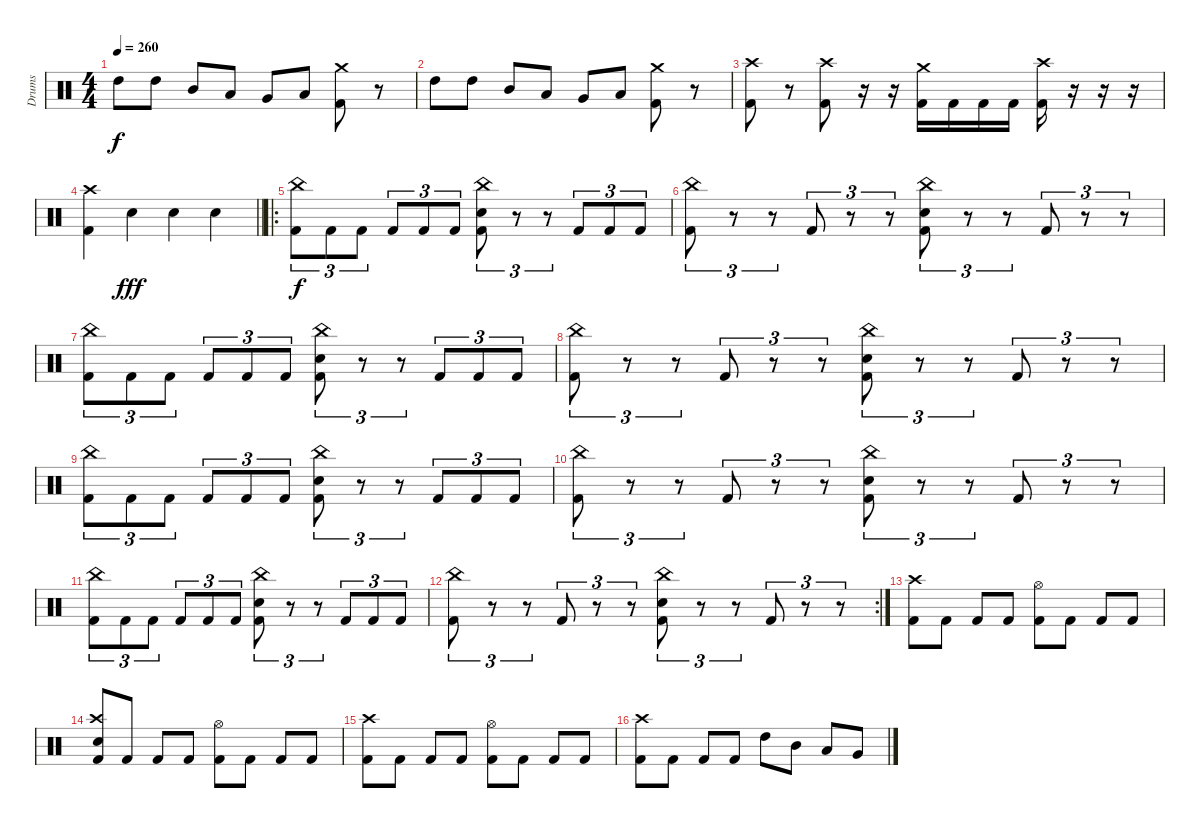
\track ("Drums" "Drums") {instrument percussion}
\staff {score}
\articulation defaults
\ts (4 4)
\tempo 260
\clef neutral
\ks c "High Tom (hit)".8{dy f} "High Tom (hit)".8 "Mid Tom (hit)".8 "Low Tom (hit)".8 "Very Low Tom (hit)".8 "Low Floor Tom (hit)".8
("Crash medium (hit)" "Kick (hit) 2").8 r.8 |
"High Tom (hit)".8 "High Tom (hit)".8 "Mid Tom (hit)".8 "Low Tom (hit)".8 "Very Low Tom (hit)".8 "Low Floor Tom (hit)".8 ("Crash medium (hit)" "Kick (hit) 2").8 r.8 |
("Crash high (hit)" "Kick (hit) 2").8 r.8 ("Crash high (hit)" "Kick (hit) 2").8 r.16 r.16 ("Crash medium (hit)" "Kick (hit) 2").16 "Kick (hit) 2".16 "Kick (hit) 2".16 "Kick (hit) 2".16 ("Crash high (hit)" "Kick (hit) 2").16 r.16 r.16 r.16 |
\barLineRight lightlight
("Crash high (hit)" "Kick (hit) 2").4 "Electric Snare (hit)".4{dy fff} "Electric Snare (hit)".4 "Electric Snare (hit)".4 |
\ro
("China (hit)" "Kick (hit) 2").8{tu (3 2) dy f} "Kick (hit) 2".8{tu (3 2)} "Kick (hit) 2".8{tu (3 2)} "Kick (hit) 2".8{tu (3 2)} "Kick (hit) 2".8{tu (3 2)} "Kick (hit) 2".8{tu (3 2)} ("China (hit)" "Electric Snare (hit)" "Kick (hit) 2").8{tu (3 2)} r.8{tu (3 2)} r.8{tu (3 2)} "Kick (hit) 2".8{tu (3 2)} "Kick (hit) 2".8{tu (3 2)} "Kick (hit) 2".8{tu (3 2)} |
("China (hit)" "Kick (hit) 2").8{tu (3 2)} r.8{tu (3 2)} r.8{tu (3 2)} "Kick (hit) 2".8{tu (3 2)} r.8{tu (3 2)} r.8{tu (3 2)} ("China (hit)" "Electric Snare (hit)" "Kick (hit) 2").8{tu (3 2)} r.8{tu (3 2)} r.8{tu (3 2)} "Kick (hit) 2".8{tu (3 2)} r.8{tu (3 2)} r.8{tu (3 2)} |
("China (hit)" "Kick (hit) 2").8{tu (3 2)} "Kick (hit) 2".8{tu (3 2)} "Kick (hit) 2".8{tu (3 2)} "Kick (hit) 2".8{tu (3 2)} "Kick (hit) 2".8{tu (3 2)} "Kick (hit) 2".8{tu (3 2)} ("China (hit)" "Electric Snare (hit)" "Kick (hit) 2").8{tu (3 2)} r.8{tu (3 2)} r.8{tu (3 2)} "Kick (hit) 2".8{tu (3 2)} "Kick (hit) 2".8{tu (3 2)} "Kick (hit) 2".8{tu (3 2)} |
("China (hit)" "Kick (hit) 2").8{tu (3 2)} r.8{tu (3 2)} r.8{tu (3 2)} "Kick (hit) 2".8{tu (3 2)} r.8{tu (3 2)} r.8{tu (3 2)} ("China (hit)" "Electric Snare (hit)" "Kick (hit) 2").8{tu (3 2)} r.8{tu (3 2)} r.8{tu (3 2)} "Kick (hit) 2".8{tu (3 2)} r.8{tu (3 2)} r.8{tu (3 2)} |
("China (hit)" "Kick (hit) 2").8{tu (3 2)} "Kick (hit) 2".8{tu (3 2)} "Kick (hit) 2".8{tu (3 2)} "Kick (hit) 2".8{tu (3 2)} "Kick (hit) 2".8{tu (3 2)} "Kick (hit) 2".8{tu (3 2)} ("China (hit)" "Electric Snare (hit)" "Kick (hit) 2").8{tu (3 2)} r.8{tu (3 2)} r.8{tu (3 2)} "Kick (hit) 2".8{tu (3 2)} "Kick (hit) 2".8{tu (3 2)} "Kick (hit) 2".8{tu (3 2)} |
("China (hit)" "Kick (hit) 2").8{tu (3 2)} r.8{tu (3 2)} r.8{tu (3 2)} "Kick (hit) 2".8{tu (3 2)} r.8{tu (3 2)} r.8{tu (3 2)} ("China (hit)" "Electric Snare (hit)" "Kick (hit) 2").8{tu (3 2)} r.8{tu (3 2)} r.8{tu (3 2)} "Kick (hit) 2".8{tu (3 2)} r.8{tu (3 2)} r.8{tu (3 2)} |
("China (hit)" "Kick (hit) 2").8{tu (3 2)} "Kick (hit) 2".8{tu (3 2)} "Kick (hit) 2".8{tu (3 2)} "Kick (hit) 2".8{tu (3 2)} "Kick (hit) 2".8{tu (3 2)} "Kick (hit) 2".8{tu (3 2)} ("China (hit)" "Electric Snare (hit)" "Kick (hit) 2").8{tu (3 2)} r.8{tu (3 2)} r.8{tu (3 2)} "Kick (hit) 2".8{tu (3 2)} "Kick (hit) 2".8{tu (3 2)} "Kick (hit) 2".8{tu (3 2)} |
\rc 2
("China (hit)" "Kick (hit) 2").8{tu (3 2)} r.8{tu (3 2)} r.8{tu (3 2)} "Kick (hit) 2".8{tu (3 2)} r.8{tu (3 2)} r.8{tu (3 2)} ("China (hit)" "Electric Snare (hit)" "Kick (hit) 2").8{tu (3 2)} r.8{tu (3 2)} r.8{tu (3 2)} "Kick (hit) 2".8{tu (3 2)} r.8{tu (3 2)} r.8{tu (3 2)} |
("Crash high (hit)" "Kick (hit) 2").8 "Kick (hit) 2".8 "Kick (hit) 2".8 "Kick (hit) 2".8 ("Hi-Hat (open)" "Kick (hit) 2").8 "Kick (hit) 2".8 "Kick (hit) 2".8 "Kick (hit) 2".8 |
("Crash high (hit)" "Electric Snare (hit)" "Kick (hit) 2").8 "Kick (hit) 2".8 "Kick (hit) 2".8 "Kick (hit) 2".8 ("Hi-Hat (open)" "Kick (hit) 2").8 "Kick (hit) 2".8 "Kick (hit) 2".8 "Kick (hit) 2".8 |
("Crash high (hit)" "Kick (hit) 2").8 "Kick (hit) 2".8 "Kick (hit) 2".8 "Kick (hit) 2".8 ("Hi-Hat (open)" "Kick (hit) 2").8 "Kick (hit) 2".8 "Kick (hit) 2".8 "Kick (hit) 2".8 |
("Crash high (hit)" "Kick (hit) 2").8 "Kick (hit) 2".8 "Kick (hit) 2".8 "Kick (hit) 2".8 "High Tom (hit)".8 "Mid Tom (hit)".8 "Low Tom (hit)".8 "Very Low Tom (hit)".8
